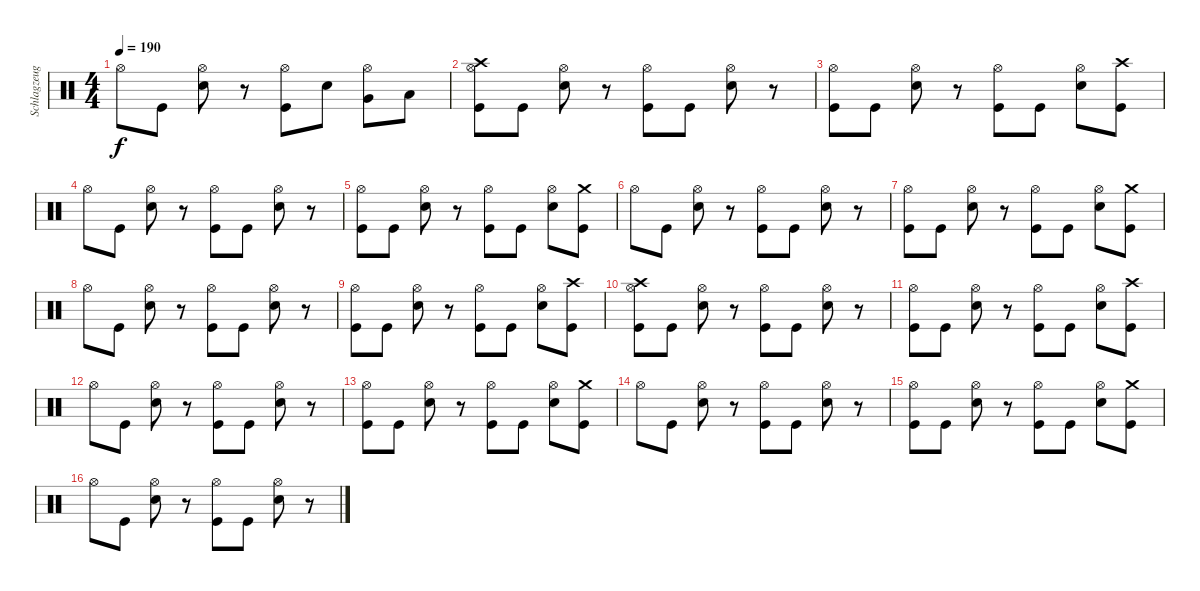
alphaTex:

\track ("Schlagzeug" "Schlagzeug") {instrument percussion}
\staff {score}
\articulation defaults
\ts (4 4)
\tempo 190
\clef neutral
\ks c "Hi-Hat (open)".8{dy f} "Kick (hit)".8
("Electric Snare (hit)" "Hi-Hat (open)").8 r.8 ("Kick (hit)" "Hi-Hat (open)").8 "Electric Snare (hit)".8 ("Very Low Tom (hit)" "Hi-Hat (open)").8 "Low Floor Tom (hit)".8 |
("Crash high (hit)" "Kick (hit)" "Hi-Hat (open)").8 "Kick (hit)".8 ("Electric Snare (hit)" "Hi-Hat (open)").8 r.8 ("Kick (hit)" "Hi-Hat (open)").8 "Kick (hit)".8 ("Electric Snare (hit)" "Hi-Hat (open)").8 r.8 |
("Kick (hit)" "Hi-Hat (open)").8 "Kick (hit)".8 ("Electric Snare (hit)" "Hi-Hat (open)").8 r.8 ("Kick (hit)" "Hi-Hat (open)").8 "Kick (hit)".8 ("Electric Snare (hit)" "Hi-Hat (open)").8 ("Kick (hit)" "Crash high (hit)").8 |
"Hi-Hat (open)".8 "Kick (hit)".8 ("Electric Snare (hit)" "Hi-Hat (open)").8 r.8 ("Kick (hit)" "Hi-Hat (open)").8 "Kick (hit)".8 ("Electric Snare (hit)" "Hi-Hat (open)").8 r.8 |
("Kick (hit)" "Hi-Hat (open)").8 "Kick (hit)".8 ("Electric Snare (hit)" "Hi-Hat (open)").8 r.8 ("Kick (hit)" "Hi-Hat (open)").8 "Kick (hit)".8 ("Electric Snare (hit)" "Hi-Hat (open)").8 ("Crash medium (hit)" "Kick (hit)").8 |
"Hi-Hat (open)".8 "Kick (hit)".8 ("Electric Snare (hit)" "Hi-Hat (open)").8 r.8 ("Kick (hit)" "Hi-Hat (open)").8 "Kick (hit)".8 ("Electric Snare (hit)" "Hi-Hat (open)").8 r.8 |
("Kick (hit)" "Hi-Hat (open)").8 "Kick (hit)".8 ("Electric Snare (hit)" "Hi-Hat (open)").8 r.8 ("Kick (hit)" "Hi-Hat (open)").8 "Kick (hit)".8 ("Electric Snare (hit)" "Hi-Hat (open)").8 ("Kick (hit)" "Crash medium (hit)").8 |
"Hi-Hat (open)".8 "Kick (hit)".8 ("Electric Snare (hit)" "Hi-Hat (open)").8 r.8 ("Kick (hit)" "Hi-Hat (open)").8 "Kick (hit)".8 ("Electric Snare (hit)" "Hi-Hat (open)").8 r.8 |
("Kick (hit)" "Hi-Hat (open)").8 "Kick (hit)".8 ("Electric Snare (hit)" "Hi-Hat (open)").8 r.8 ("Kick (hit)" "Hi-Hat (open)").8 "Kick (hit)".8 ("Electric Snare (hit)" "Hi-Hat (open)").8 ("Kick (hit)" "Crash high (hit)").8 |
("Crash high (hit)" "Kick (hit)" "Hi-Hat (open)").8 "Kick (hit)".8 ("Electric Snare (hit)" "Hi-Hat (open)").8 r.8 ("Kick (hit)" "Hi-Hat (open)").8 "Kick (hit)".8 ("Electric Snare (hit)" "Hi-Hat (open)").8 r.8 |
("Kick (hit)" "Hi-Hat (open)").8 "Kick (hit)".8 ("Electric Snare (hit)" "Hi-Hat (open)").8 r.8 ("Kick (hit)" "Hi-Hat (open)").8 "Kick (hit)".8 ("Electric Snare (hit)" "Hi-Hat (open)").8 ("Kick (hit)" "Crash high (hit)").8 |
"Hi-Hat (open)".8 "Kick (hit)".8 ("Electric Snare (hit)" "Hi-Hat (open)").8 r.8 ("Kick (hit)" "Hi-Hat (open)").8 "Kick (hit)".8 ("Electric Snare (hit)" "Hi-Hat (open)").8 r.8 |
("Kick (hit)" "Hi-Hat (open)").8 "Kick (hit)".8 ("Electric Snare (hit)" "Hi-Hat (open)").8 r.8 ("Kick (hit)" "Hi-Hat (open)").8 "Kick (hit)".8 ("Electric Snare (hit)" "Hi-Hat (open)").8 ("Crash medium (hit)" "Kick (hit)").8 |
"Hi-Hat (open)".8 "Kick (hit)".8 ("Electric Snare (hit)" "Hi-Hat (open)").8 r.8 ("Kick (hit)" "Hi-Hat (open)").8 "Kick (hit)".8 ("Electric Snare (hit)" "Hi-Hat (open)").8 r.8 |
("Kick (hit)" "Hi-Hat (open)").8 "Kick (hit)".8 ("Electric Snare (hit)" "Hi-Hat (open)").8 r.8 ("Kick (hit)" "Hi-Hat (open)").8 "Kick (hit)".8 ("Electric Snare (hit)" "Hi-Hat (open)").8 ("Kick (hit)" "Crash medium (hit)").8 |
"Hi-Hat (open)".8 "Kick (hit)".8 ("Electric Snare (hit)" "Hi-Hat (open)").8 r.8 ("Kick (hit)" "Hi-Hat (open)").8 "Kick (hit)".8 ("Electric Snare (hit)" "Hi-Hat (open)").8 r.8
